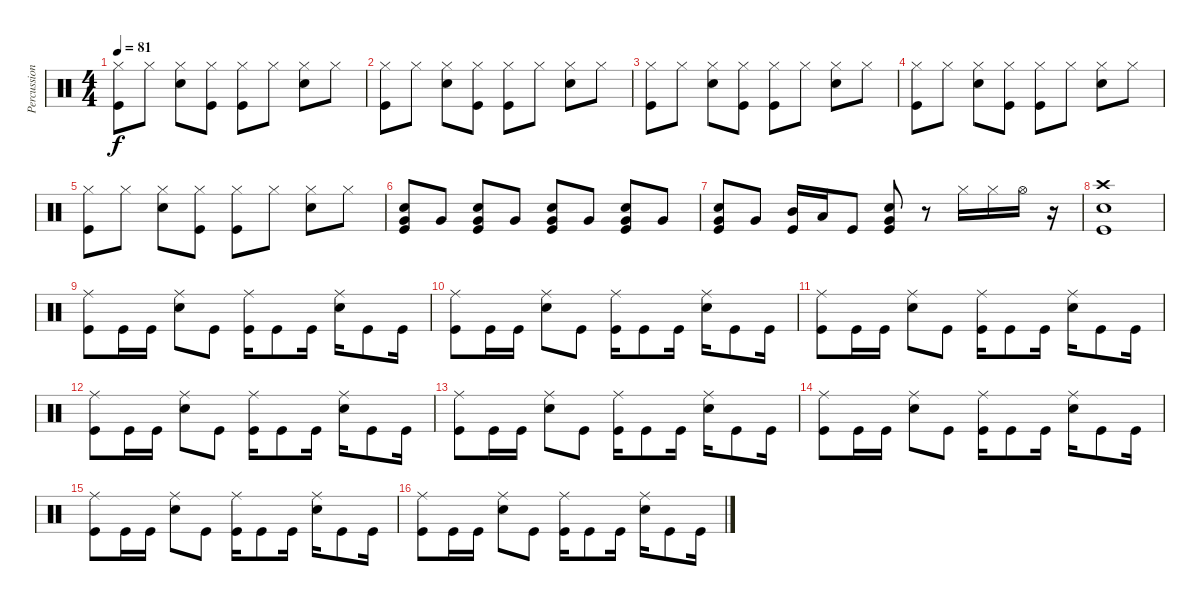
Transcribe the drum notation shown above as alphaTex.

\track ("Percussion" "Percussion") {instrument percussion}
\staff {score}
\articulation defaults
\ts (4 4)
\tempo 81
\clef neutral
\ks c
("Hi-Hat (closed)" "Kick (hit)").8{dy f} "Hi-Hat (closed)".8 ("Hi-Hat (closed)" "Electric Snare (hit)").8 ("Hi-Hat (closed)" "Kick (hit)").8 ("Hi-Hat (closed)" "Kick (hit)").8 "Hi-Hat (closed)".8 ("Hi-Hat (closed)" "Electric Snare (hit)").8 "Hi-Hat (closed)".8 |
("Hi-Hat (closed)" "Kick (hit)").8 "Hi-Hat (closed)".8 ("Hi-Hat (closed)" "Electric Snare (hit)").8 ("Hi-Hat (closed)" "Kick (hit)").8 ("Hi-Hat (closed)" "Kick (hit)").8 "Hi-Hat (closed)".8 ("Hi-Hat (closed)" "Electric Snare (hit)").8 "Hi-Hat (closed)".8 |
("Hi-Hat (closed)" "Kick (hit)").8 "Hi-Hat (closed)".8 ("Hi-Hat (closed)" "Electric Snare (hit)").8 ("Hi-Hat (closed)" "Kick (hit)").8 ("Hi-Hat (closed)" "Kick (hit)").8 "Hi-Hat (closed)".8 ("Hi-Hat (closed)" "Electric Snare (hit)").8 "Hi-Hat (closed)".8 |
("Hi-Hat (closed)" "Kick (hit)").8 "Hi-Hat (closed)".8 ("Hi-Hat (closed)" "Electric Snare (hit)").8 ("Hi-Hat (closed)" "Kick (hit)").8 ("Hi-Hat (closed)" "Kick (hit)").8 "Hi-Hat (closed)".8 ("Hi-Hat (closed)" "Electric Snare (hit)").8 "Hi-Hat (closed)".8 |
("Hi-Hat (closed)" "Kick (hit)").8 "Hi-Hat (closed)".8 ("Hi-Hat (closed)" "Electric Snare (hit)").8 ("Hi-Hat (closed)" "Kick (hit)").8 ("Hi-Hat (closed)" "Kick (hit)").8 "Hi-Hat (closed)".8 ("Hi-Hat (closed)" "Electric Snare (hit)").8 "Hi-Hat (closed)".8 |
("Electric Snare (hit)" "Very Low Tom (hit)" "Kick (hit)").8 "Very Low Tom (hit)".8 ("Electric Snare (hit)" "Very Low Tom (hit)" "Kick (hit)").8 "Very Low Tom (hit)".8 ("Electric Snare (hit)" "Very Low Tom (hit)" "Kick (hit)").8 "Very Low Tom (hit)".8 ("Electric Snare (hit)" "Very Low Tom (hit)" "Kick (hit)").8 "Very Low Tom (hit)".8 |
("Electric Snare (hit)" "Very Low Tom (hit)" "Kick (hit)").8 "Very Low Tom (hit)".8 ("Mid Tom (hit)" "Kick (hit)").16 "Low Tom (hit)".16 "Kick (hit)".8 ("Electric Snare (hit)" "Very Low Tom (hit)" "Kick (hit)").8 r.8 "Hi-Hat (closed)".16 "Hi-Hat (closed)".16 "Hi-Hat (open)".16 r.16 |
("Crash high (hit)" "Electric Snare (hit)" "Kick (hit)").1 |
("Ride (middle)" "Kick (hit)").8 "Kick (hit)".16 "Kick (hit)".16 ("Ride (middle)" "Electric Snare (hit)").8 "Kick (hit)".8 ("Ride (middle)" "Kick (hit)").16 "Kick (hit)".8 "Kick (hit)".16 ("Ride (middle)" "Electric Snare (hit)").16 "Kick (hit)".8 "Kick (hit)".16 |
("Ride (middle)" "Kick (hit)").8 "Kick (hit)".16 "Kick (hit)".16 ("Ride (middle)" "Electric Snare (hit)").8 "Kick (hit)".8 ("Ride (middle)" "Kick (hit)").16 "Kick (hit)".8 "Kick (hit)".16 ("Ride (middle)" "Electric Snare (hit)").16 "Kick (hit)".8 "Kick (hit)".16 |
("Ride (middle)" "Kick (hit)").8 "Kick (hit)".16 "Kick (hit)".16 ("Ride (middle)" "Electric Snare (hit)").8 "Kick (hit)".8 ("Ride (middle)" "Kick (hit)").16 "Kick (hit)".8 "Kick (hit)".16 ("Ride (middle)" "Electric Snare (hit)").16 "Kick (hit)".8 "Kick (hit)".16 |
("Ride (middle)" "Kick (hit)").8 "Kick (hit)".16 "Kick (hit)".16 ("Ride (middle)" "Electric Snare (hit)").8 "Kick (hit)".8 ("Ride (middle)" "Kick (hit)").16 "Kick (hit)".8 "Kick (hit)".16 ("Ride (middle)" "Electric Snare (hit)").16 "Kick (hit)".8 "Kick (hit)".16 |
("Ride (middle)" "Kick (hit)").8 "Kick (hit)".16 "Kick (hit)".16 ("Ride (middle)" "Electric Snare (hit)").8 "Kick (hit)".8 ("Ride (middle)" "Kick (hit)").16 "Kick (hit)".8 "Kick (hit)".16 ("Ride (middle)" "Electric Snare (hit)").16 "Kick (hit)".8 "Kick (hit)".16 |
("Ride (middle)" "Kick (hit)").8 "Kick (hit)".16 "Kick (hit)".16 ("Ride (middle)" "Electric Snare (hit)").8 "Kick (hit)".8 ("Ride (middle)" "Kick (hit)").16 "Kick (hit)".8 "Kick (hit)".16 ("Ride (middle)" "Electric Snare (hit)").16 "Kick (hit)".8 "Kick (hit)".16 |
("Ride (middle)" "Kick (hit)").8 "Kick (hit)".16 "Kick (hit)".16 ("Ride (middle)" "Electric Snare (hit)").8 "Kick (hit)".8 ("Ride (middle)" "Kick (hit)").16 "Kick (hit)".8 "Kick (hit)".16 ("Ride (middle)" "Electric Snare (hit)").16 "Kick (hit)".8 "Kick (hit)".16 |
("Ride (middle)" "Kick (hit)").8 "Kick (hit)".16 "Kick (hit)".16 ("Ride (middle)" "Electric Snare (hit)").8 "Kick (hit)".8 ("Ride (middle)" "Kick (hit)").16 "Kick (hit)".8 "Kick (hit)".16 ("Ride (middle)" "Electric Snare (hit)").16 "Kick (hit)".8 "Kick (hit)".16
